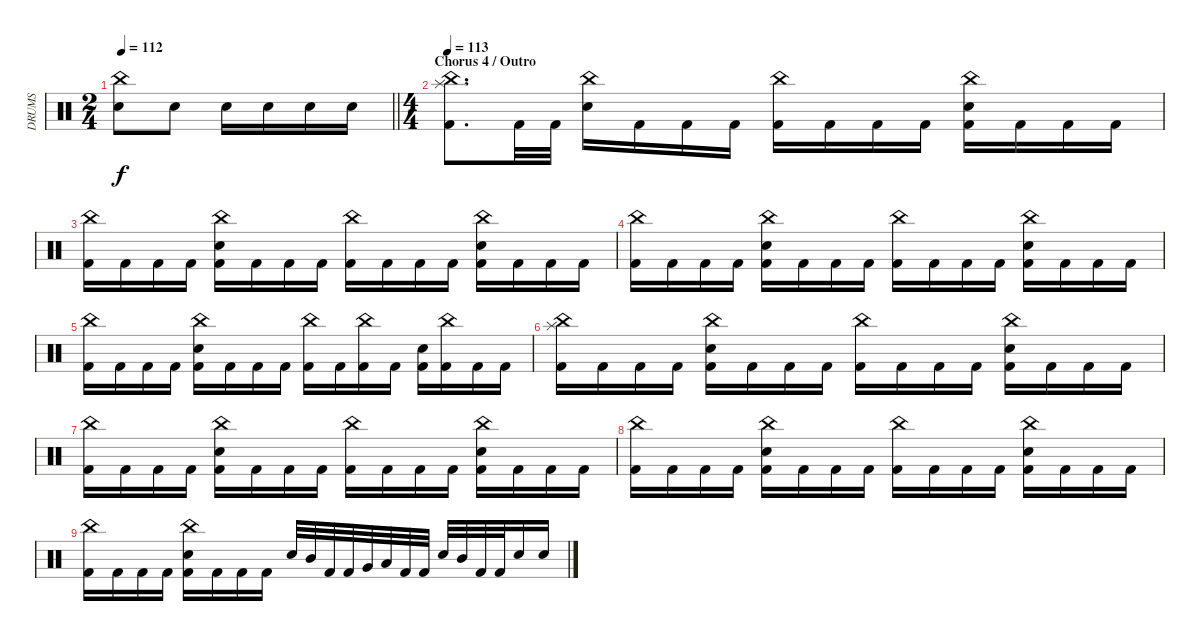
\track ("DRUMS" "DRUMS") {instrument percussion}
\staff {score}
\articulation defaults
\ts (2 4)
\tempo 112
\clef neutral
\barLineRight lightlight
\ks c
("China (hit)" "Electric Snare (hit)").8{dy f} "Electric Snare (hit)".8 "Electric Snare (hit)".16 "Electric Snare (hit)".16 "Electric Snare (hit)".16 "Electric Snare (hit)".16 |
\ts (4 4)
\section ("" "Chorus 4 / Outro")
\tempo 113
("China (hit)" "Splash (hit)" "Kick (hit) 2").8{d} "Kick (hit) 2".32 "Kick (hit) 2".32 ("China (hit)" "Electric Snare (hit)").16 "Kick (hit) 2".16 "Kick (hit) 2".16 "Kick (hit) 2".16 ("China (hit)" "Kick (hit) 2").16 "Kick (hit) 2".16 "Kick (hit) 2".16 "Kick (hit) 2".16 ("China (hit)" "Electric Snare (hit)" "Kick (hit) 2").16 "Kick (hit) 2".16 "Kick (hit) 2".16 "Kick (hit) 2".16 |
("China (hit)" "Kick (hit) 2").16 "Kick (hit) 2".16 "Kick (hit) 2".16 "Kick (hit) 2".16 ("China (hit)" "Electric Snare (hit)" "Kick (hit) 2").16 "Kick (hit) 2".16 "Kick (hit) 2".16 "Kick (hit) 2".16 ("China (hit)" "Kick (hit) 2").16 "Kick (hit) 2".16 "Kick (hit) 2".16 "Kick (hit) 2".16 ("China (hit)" "Electric Snare (hit)" "Kick (hit) 2").16 "Kick (hit) 2".16 "Kick (hit) 2".16 "Kick (hit) 2".16 |
("China (hit)" "Kick (hit) 2").16 "Kick (hit) 2".16 "Kick (hit) 2".16 "Kick (hit) 2".16 ("China (hit)" "Electric Snare (hit)" "Kick (hit) 2").16 "Kick (hit) 2".16 "Kick (hit) 2".16 "Kick (hit) 2".16 ("China (hit)" "Kick (hit) 2").16 "Kick (hit) 2".16 "Kick (hit) 2".16 "Kick (hit) 2".16 ("China (hit)" "Electric Snare (hit)" "Kick (hit) 2").16 "Kick (hit) 2".16 "Kick (hit) 2".16 "Kick (hit) 2".16 |
("China (hit)" "Kick (hit) 2").16 "Kick (hit) 2".16 "Kick (hit) 2".16 "Kick (hit) 2".16 ("China (hit)" "Electric Snare (hit)" "Kick (hit) 2").16 "Kick (hit) 2".16 "Kick (hit) 2".16 "Kick (hit) 2".16 ("China (hit)" "Kick (hit) 2").16 "Kick (hit) 2".16 ("China (hit)" "Kick (hit) 2").16 "Kick (hit) 2".16 ("Electric Snare (hit)" "Kick (hit) 2").16 ("China (hit)" "Kick (hit) 2").16 "Kick (hit) 2".16 "Kick (hit) 2".16 |
("China (hit)" "Splash (hit)" "Kick (hit) 2").16 "Kick (hit) 2".16 "Kick (hit) 2".16 "Kick (hit) 2".16 ("China (hit)" "Electric Snare (hit)" "Kick (hit) 2").16 "Kick (hit) 2".16 "Kick (hit) 2".16 "Kick (hit) 2".16 ("China (hit)" "Kick (hit) 2").16 "Kick (hit) 2".16 "Kick (hit) 2".16 "Kick (hit) 2".16 ("China (hit)" "Electric Snare (hit)" "Kick (hit) 2").16 "Kick (hit) 2".16 "Kick (hit) 2".16 "Kick (hit) 2".16 |
("China (hit)" "Kick (hit) 2").16 "Kick (hit) 2".16 "Kick (hit) 2".16 "Kick (hit) 2".16 ("China (hit)" "Electric Snare (hit)" "Kick (hit) 2").16 "Kick (hit) 2".16 "Kick (hit) 2".16 "Kick (hit) 2".16 ("China (hit)" "Kick (hit) 2").16 "Kick (hit) 2".16 "Kick (hit) 2".16 "Kick (hit) 2".16 ("China (hit)" "Electric Snare (hit)" "Kick (hit) 2").16 "Kick (hit) 2".16 "Kick (hit) 2".16 "Kick (hit) 2".16 |
("China (hit)" "Kick (hit) 2").16 "Kick (hit) 2".16 "Kick (hit) 2".16 "Kick (hit) 2".16 ("China (hit)" "Electric Snare (hit)" "Kick (hit) 2").16 "Kick (hit) 2".16 "Kick (hit) 2".16 "Kick (hit) 2".16 ("China (hit)" "Kick (hit) 2").16 "Kick (hit) 2".16 "Kick (hit) 2".16 "Kick (hit) 2".16 ("China (hit)" "Electric Snare (hit)" "Kick (hit) 2").16 "Kick (hit) 2".16 "Kick (hit) 2".16 "Kick (hit) 2".16 |
("China (hit)" "Kick (hit) 2").16 "Kick (hit) 2".16 "Kick (hit) 2".16 "Kick (hit) 2".16 ("China (hit)" "Electric Snare (hit)" "Kick (hit) 2").16 "Kick (hit) 2".16 "Kick (hit) 2".16 "Kick (hit) 2".16 "Electric Snare (hit)".32 "Mid Tom (hit)".32 "Kick (hit) 2".32 "Kick (hit) 2".32 "Very Low Tom (hit)".32 "Low Tom (hit)".32 "Kick (hit) 2".32 "Kick (hit) 2".32 "Electric Snare (hit)".32 "Mid Tom (hit)".32 "Kick (hit) 2".32 "Kick (hit) 2".32 "Electric Snare (hit)".16 "Electric Snare (hit)".16
